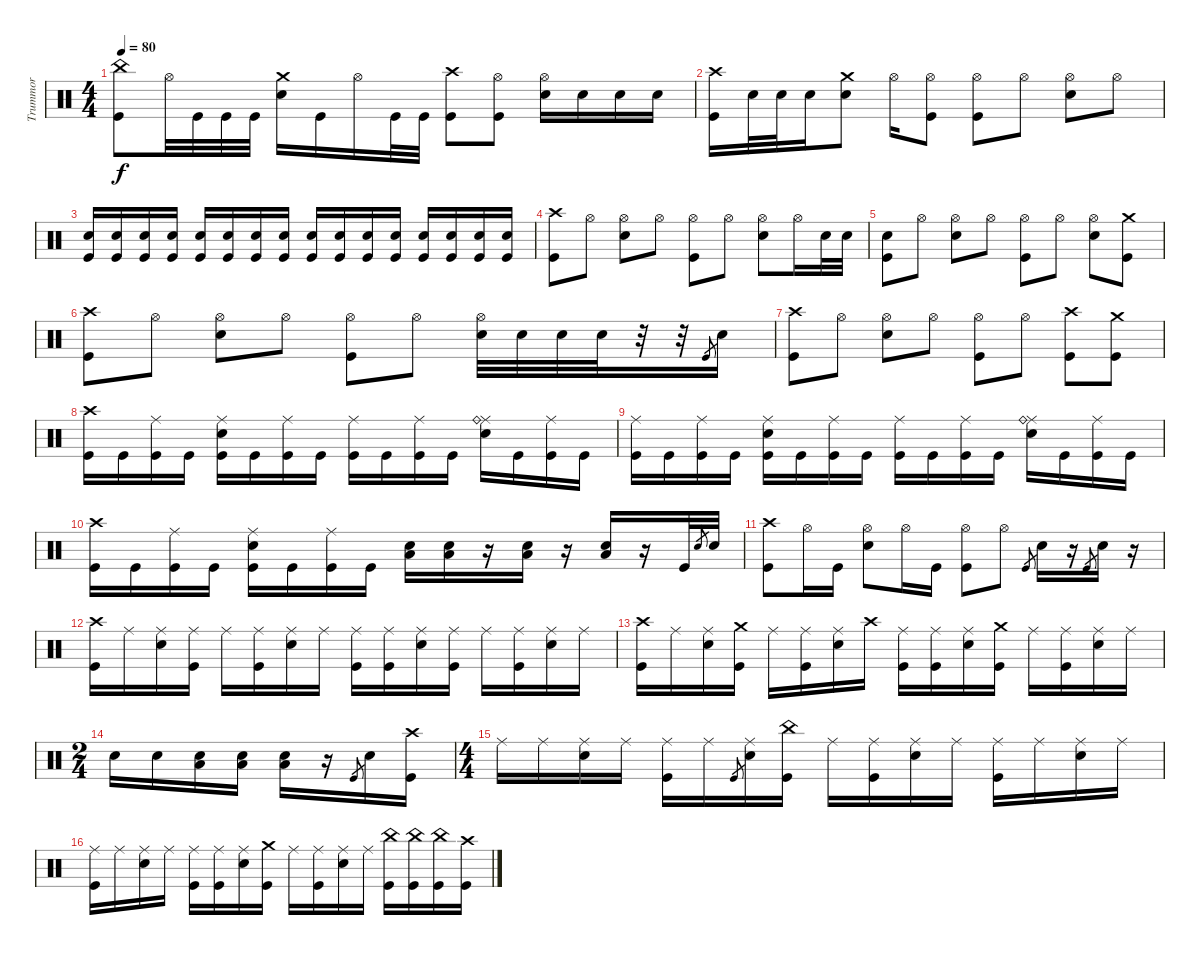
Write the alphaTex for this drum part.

\track ("Trummor" "Trummor") {instrument percussion}
\staff {score}
\articulation defaults
\ts (4 4)
\tempo 80
\clef neutral
\ks c
("China (hit)" "Kick (hit)").8{dy f} "Hi-Hat (open)".32 "Kick (hit)".32 "Kick (hit)".32 "Kick (hit)".32 ("Crash medium (hit)" "Electric Snare (hit)").16 "Kick (hit)".16 "Hi-Hat (open)".16 "Kick (hit)".32 "Kick (hit)".32 ("Crash high (hit)" "Kick (hit)").8 ("Hi-Hat (open)" "Kick (hit)").8 ("Hi-Hat (open)" "Electric Snare (hit)").16 "Electric Snare (hit)".16 "Electric Snare (hit)".16 "Electric Snare (hit)".16 |
("Crash high (hit)" "Kick (hit)").16 "Electric Snare (hit)".32 "Electric Snare (hit)".32 "Electric Snare (hit)".16 ("Crash medium (hit)" "Electric Snare (hit)").8 "Hi-Hat (open)".16 ("Hi-Hat (open)" "Kick (hit)").8 ("Hi-Hat (open)" "Kick (hit)").8 "Hi-Hat (open)".8 ("Hi-Hat (open)" "Electric Snare (hit)").8 "Hi-Hat (open)".8 |
("Electric Snare (hit)" "Kick (hit)").16 ("Electric Snare (hit)" "Kick (hit)").16 ("Electric Snare (hit)" "Kick (hit)").16 ("Electric Snare (hit)" "Kick (hit)").16 ("Electric Snare (hit)" "Kick (hit)").16 ("Electric Snare (hit)" "Kick (hit)").16 ("Electric Snare (hit)" "Kick (hit)").16 ("Electric Snare (hit)" "Kick (hit)").16 ("Electric Snare (hit)" "Kick (hit)").16 ("Electric Snare (hit)" "Kick (hit)").16 ("Electric Snare (hit)" "Kick (hit)").16 ("Electric Snare (hit)" "Kick (hit)").16 ("Electric Snare (hit)" "Kick (hit)").16 ("Electric Snare (hit)" "Kick (hit)").16 ("Electric Snare (hit)" "Kick (hit)").16 ("Electric Snare (hit)" "Kick (hit)").16 |
("Crash high (hit)" "Kick (hit)").8 "Hi-Hat (open)".8 ("Hi-Hat (open)" "Electric Snare (hit)").8 "Hi-Hat (open)".8 ("Hi-Hat (open)" "Kick (hit)").8 "Hi-Hat (open)".8 ("Hi-Hat (open)" "Electric Snare (hit)").8 "Hi-Hat (open)".16 "Electric Snare (hit)".32 "Electric Snare (hit)".32 |
("Electric Snare (hit)" "Kick (hit)").8 "Hi-Hat (open)".8 ("Hi-Hat (open)" "Electric Snare (hit)").8 "Hi-Hat (open)".8 ("Hi-Hat (open)" "Kick (hit)").8 "Hi-Hat (open)".8 ("Hi-Hat (open)" "Electric Snare (hit)").8 ("Crash medium (hit)" "Kick (hit)").8 |
("Crash high (hit)" "Kick (hit)").8 "Hi-Hat (open)".8 ("Hi-Hat (open)" "Electric Snare (hit)").8 "Hi-Hat (open)".8 ("Hi-Hat (open)" "Kick (hit)").8 "Hi-Hat (open)".8 ("Hi-Hat (open)" "Electric Snare (hit)").32 "Electric Snare (hit)".32 "Electric Snare (hit)".32 "Electric Snare (hit)".32 r.32 r.32 "Kick (hit)"{sl}.8{gr} "Electric Snare (hit)".16 |
("Crash high (hit)" "Kick (hit)").8 "Hi-Hat (open)".8 ("Hi-Hat (open)" "Electric Snare (hit)").8 "Hi-Hat (open)".8 ("Hi-Hat (open)" "Kick (hit)").8 "Hi-Hat (open)".8 ("Crash high (hit)" "Kick (hit)").8 ("Crash medium (hit)" "Kick (hit)").8 |
("Crash high (hit)" "Kick (hit)").16 "Kick (hit)".16 ("Ride (middle)" "Kick (hit)").16 "Kick (hit)".16 ("Ride (middle)" "Electric Snare (hit)" "Kick (hit)").16 "Kick (hit)".16 ("Ride (middle)" "Kick (hit)").16 "Kick (hit)".16 ("Ride (middle)" "Kick (hit)").16 "Kick (hit)".16 ("Ride (middle)" "Kick (hit)").16 "Kick (hit)".16 ("Ride (middle)" "Electric Snare (hit)" "Ride (bell)").16 "Kick (hit)".16 ("Ride (middle)" "Kick (hit)").16 "Kick (hit)".16 |
("Ride (middle)" "Kick (hit)").16 "Kick (hit)".16 ("Ride (middle)" "Kick (hit)").16 "Kick (hit)".16 ("Ride (middle)" "Electric Snare (hit)" "Kick (hit)").16 "Kick (hit)".16 ("Ride (middle)" "Kick (hit)").16 "Kick (hit)".16 ("Ride (middle)" "Kick (hit)").16 "Kick (hit)".16 ("Ride (middle)" "Kick (hit)").16 "Kick (hit)".16 ("Ride (middle)" "Electric Snare (hit)" "Ride (bell)").16 "Kick (hit)".16 ("Ride (middle)" "Kick (hit)").16 "Kick (hit)".16 |
("Crash high (hit)" "Kick (hit)").16 "Kick (hit)".16 ("Ride (middle)" "Kick (hit)").16 "Kick (hit)".16 ("Ride (middle)" "Electric Snare (hit)" "Kick (hit)").16 "Kick (hit)".16 ("Ride (middle)" "Kick (hit)").16 "Kick (hit)".16 ("Electric Snare (hit)" "Low Floor Tom (hit)").16 ("Electric Snare (hit)" "Low Floor Tom (hit)").16 r.16 ("Electric Snare (hit)" "Low Floor Tom (hit)").16 r.16 ("Electric Snare (hit)" "Low Floor Tom (hit)").16 r.16 "Kick (hit)".32 "Electric Snare (hit)"{sl}.8{gr} "Electric Snare (hit)".32 |
("Crash high (hit)" "Kick (hit)").8 "Hi-Hat (open)".16 "Kick (hit)".16 ("Hi-Hat (open)" "Electric Snare (hit)").8 "Hi-Hat (open)".16 "Kick (hit)".16 ("Hi-Hat (open)" "Kick (hit)").8 "Hi-Hat (open)".8 "Kick (hit)"{sl}.8{gr} "Electric Snare (hit)".16 r.16 "Kick (hit)"{sl}.8{gr} "Electric Snare (hit)".16 r.16 |
("Crash high (hit)" "Kick (hit)").16 "Ride (middle)".16 ("Ride (middle)" "Electric Snare (hit)").16 ("Ride (middle)" "Kick (hit)").16 "Ride (middle)".16 ("Ride (middle)" "Kick (hit)").16 ("Ride (middle)" "Electric Snare (hit)").16 "Ride (middle)".16 ("Ride (middle)" "Kick (hit)").16 ("Ride (middle)" "Kick (hit)").16 ("Ride (middle)" "Electric Snare (hit)").16 ("Ride (middle)" "Kick (hit)").16 "Ride (middle)".16 ("Ride (middle)" "Kick (hit)").16 ("Ride (middle)" "Electric Snare (hit)").16 "Ride (middle)".16 |
("Crash high (hit)" "Kick (hit)").16 "Ride (middle)".16 ("Ride (middle)" "Electric Snare (hit)").16 ("Crash medium (hit)" "Kick (hit)").16 "Ride (middle)".16 ("Ride (middle)" "Kick (hit)").16 ("Ride (middle)" "Electric Snare (hit)").16 "Crash high (hit)".16 ("Ride (middle)" "Kick (hit)").16 ("Ride (middle)" "Kick (hit)").16 ("Ride (middle)" "Electric Snare (hit)").16 ("Crash medium (hit)" "Kick (hit)").16 "Ride (middle)".16 ("Ride (middle)" "Kick (hit)").16 ("Ride (middle)" "Electric Snare (hit)").16 "Ride (middle)".16 |
\ts (2 4)
"Electric Snare (hit)".16 "Electric Snare (hit)".16 ("Electric Snare (hit)" "Low Floor Tom (hit)").16 ("Electric Snare (hit)" "Low Floor Tom (hit)").16 ("Electric Snare (hit)" "Low Floor Tom (hit)").16 r.16 "Kick (hit)"{sl}.8{gr} "Electric Snare (hit)".16 ("Crash high (hit)" "Kick (hit)").16 |
\ts (4 4)
"Ride (middle)".16 "Ride (middle)".16 ("Ride (middle)" "Electric Snare (hit)").16 "Ride (middle)".16 ("Ride (middle)" "Kick (hit)").16 "Ride (middle)".16 "Kick (hit)"{sl}.8{gr} ("Ride (middle)" "Electric Snare (hit)").16 ("China (hit)" "Kick (hit)").16 "Ride (middle)".16 ("Ride (middle)" "Kick (hit)").16 ("Ride (middle)" "Electric Snare (hit)").16 "Ride (middle)".16 ("Ride (middle)" "Kick (hit)").16 "Ride (middle)".16 ("Ride (middle)" "Electric Snare (hit)").16 "Ride (middle)".16 |
("Ride (middle)" "Kick (hit)").16 "Ride (middle)".16 ("Ride (middle)" "Electric Snare (hit)").16 "Ride (middle)".16 ("Ride (middle)" "Kick (hit)").16 ("Ride (middle)" "Kick (hit)").16 ("Ride (middle)" "Electric Snare (hit)").16 ("Crash medium (hit)" "Kick (hit)").16 "Ride (middle)".16 ("Ride (middle)" "Kick (hit)").16 ("Ride (middle)" "Electric Snare (hit)").16 "Ride (middle)".16 ("China (hit)" "Kick (hit)").16 ("China (hit)" "Kick (hit)").16 ("China (hit)" "Kick (hit)").16 ("Crash high (hit)" "Kick (hit)").16
